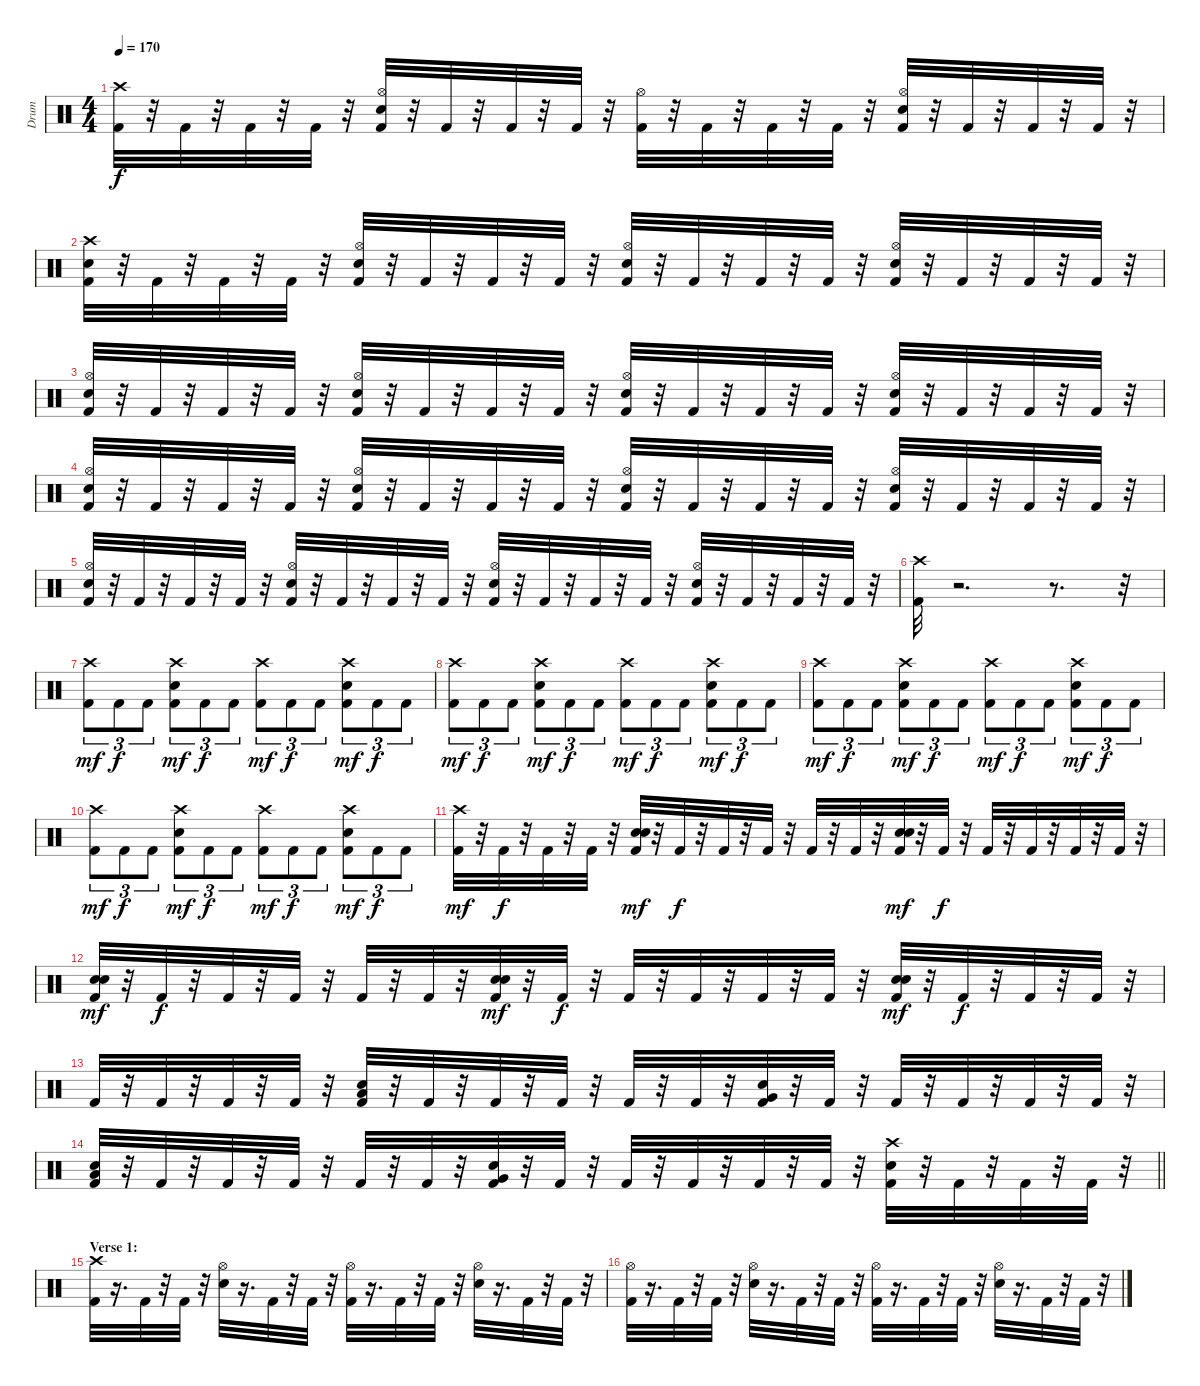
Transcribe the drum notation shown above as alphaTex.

\track ("Drum" "Drum") {instrument percussion}
\staff {score}
\articulation defaults
\ts (4 4)
\tempo 170
\clef neutral
\ks c
("Crash high (hit)" "Kick (hit) 2").32{dy f} r.32 "Kick (hit) 2".32 r.32 "Kick (hit) 2".32 r.32 "Kick (hit) 2".32 r.32 ("Hi-Hat (open)" "Snare (hit) 2" "Kick (hit) 2").32 r.32 "Kick (hit) 2".32 r.32 "Kick (hit) 2".32 r.32 "Kick (hit) 2".32 r.32 ("Hi-Hat (open)" "Kick (hit) 2").32 r.32 "Kick (hit) 2".32 r.32 "Kick (hit) 2".32 r.32 "Kick (hit) 2".32 r.32 ("Hi-Hat (open)" "Kick (hit) 2" "Snare (hit) 2").32 r.32 "Kick (hit) 2".32 r.32 "Kick (hit) 2".32 r.32 "Kick (hit) 2".32 r.32 |
("Snare (hit) 2" "Kick (hit) 2" "Crash high (hit)").32 r.32 "Kick (hit) 2".32 r.32 "Kick (hit) 2".32 r.32 "Kick (hit) 2".32 r.32 ("Snare (hit) 2" "Kick (hit) 2" "Hi-Hat (open)").32 r.32 "Kick (hit) 2".32 r.32 "Kick (hit) 2".32 r.32 "Kick (hit) 2".32 r.32 ("Snare (hit) 2" "Kick (hit) 2" "Hi-Hat (open)").32 r.32 "Kick (hit) 2".32 r.32 "Kick (hit) 2".32 r.32 "Kick (hit) 2".32 r.32 ("Snare (hit) 2" "Kick (hit) 2" "Hi-Hat (open)").32 r.32 "Kick (hit) 2".32 r.32 "Kick (hit) 2".32 r.32 "Kick (hit) 2".32 r.32 |
("Snare (hit) 2" "Kick (hit) 2" "Hi-Hat (open)").32 r.32 "Kick (hit) 2".32 r.32 "Kick (hit) 2".32 r.32 "Kick (hit) 2".32 r.32 ("Snare (hit) 2" "Kick (hit) 2" "Hi-Hat (open)").32 r.32 "Kick (hit) 2".32 r.32 "Kick (hit) 2".32 r.32 "Kick (hit) 2".32 r.32 ("Snare (hit) 2" "Kick (hit) 2" "Hi-Hat (open)").32 r.32 "Kick (hit) 2".32 r.32 "Kick (hit) 2".32 r.32 "Kick (hit) 2".32 r.32 ("Snare (hit) 2" "Kick (hit) 2" "Hi-Hat (open)").32 r.32 "Kick (hit) 2".32 r.32 "Kick (hit) 2".32 r.32 "Kick (hit) 2".32 r.32 |
("Snare (hit) 2" "Kick (hit) 2" "Hi-Hat (open)").32 r.32 "Kick (hit) 2".32 r.32 "Kick (hit) 2".32 r.32 "Kick (hit) 2".32 r.32 ("Snare (hit) 2" "Kick (hit) 2" "Hi-Hat (open)").32 r.32 "Kick (hit) 2".32 r.32 "Kick (hit) 2".32 r.32 "Kick (hit) 2".32 r.32 ("Snare (hit) 2" "Kick (hit) 2" "Hi-Hat (open)").32 r.32 "Kick (hit) 2".32 r.32 "Kick (hit) 2".32 r.32 "Kick (hit) 2".32 r.32 ("Snare (hit) 2" "Kick (hit) 2" "Hi-Hat (open)").32 r.32 "Kick (hit) 2".32 r.32 "Kick (hit) 2".32 r.32 "Kick (hit) 2".32 r.32 |
("Snare (hit) 2" "Kick (hit) 2" "Hi-Hat (open)").32 r.32 "Kick (hit) 2".32 r.32 "Kick (hit) 2".32 r.32 "Kick (hit) 2".32 r.32 ("Snare (hit) 2" "Kick (hit) 2" "Hi-Hat (open)").32 r.32 "Kick (hit) 2".32 r.32 "Kick (hit) 2".32 r.32 "Kick (hit) 2".32 r.32 ("Snare (hit) 2" "Kick (hit) 2" "Hi-Hat (open)").32 r.32 "Kick (hit) 2".32 r.32 "Kick (hit) 2".32 r.32 "Kick (hit) 2".32 r.32 ("Snare (hit) 2" "Kick (hit) 2" "Hi-Hat (open)").32 r.32 "Kick (hit) 2".32 r.32 "Kick (hit) 2".32 r.32 "Kick (hit) 2".32 r.32 |
("Crash high (hit)" "Kick (hit) 2").32 r.2{d} r.8{d} r.32 |
("Kick (hit) 2" "Crash high (hit)").8{tu (3 2) dy mf} "Kick (hit) 2".8{tu (3 2) dy f} "Kick (hit) 2".8{tu (3 2)} ("Kick (hit) 2" "Crash high (hit)" "Snare (hit) 2").8{tu (3 2) dy mf} "Kick (hit) 2".8{tu (3 2) dy f} "Kick (hit) 2".8{tu (3 2)} ("Kick (hit) 2" "Crash high (hit)").8{tu (3 2) dy mf} "Kick (hit) 2".8{tu (3 2) dy f} "Kick (hit) 2".8{tu (3 2)} ("Kick (hit) 2" "Crash high (hit)" "Snare (hit) 2").8{tu (3 2) dy mf} "Kick (hit) 2".8{tu (3 2) dy f} "Kick (hit) 2".8{tu (3 2)} |
("Kick (hit) 2" "Crash high (hit)").8{tu (3 2) dy mf} "Kick (hit) 2".8{tu (3 2) dy f} "Kick (hit) 2".8{tu (3 2)} ("Kick (hit) 2" "Crash high (hit)" "Snare (hit) 2").8{tu (3 2) dy mf} "Kick (hit) 2".8{tu (3 2) dy f} "Kick (hit) 2".8{tu (3 2)} ("Kick (hit) 2" "Crash high (hit)").8{tu (3 2) dy mf} "Kick (hit) 2".8{tu (3 2) dy f} "Kick (hit) 2".8{tu (3 2)} ("Kick (hit) 2" "Crash high (hit)" "Snare (hit) 2").8{tu (3 2) dy mf} "Kick (hit) 2".8{tu (3 2) dy f} "Kick (hit) 2".8{tu (3 2)} |
("Kick (hit) 2" "Crash high (hit)").8{tu (3 2) dy mf} "Kick (hit) 2".8{tu (3 2) dy f} "Kick (hit) 2".8{tu (3 2)} ("Kick (hit) 2" "Crash high (hit)" "Snare (hit) 2").8{tu (3 2) dy mf} "Kick (hit) 2".8{tu (3 2) dy f} "Kick (hit) 2".8{tu (3 2)} ("Kick (hit) 2" "Crash high (hit)").8{tu (3 2) dy mf} "Kick (hit) 2".8{tu (3 2) dy f} "Kick (hit) 2".8{tu (3 2)} ("Kick (hit) 2" "Crash high (hit)" "Snare (hit) 2").8{tu (3 2) dy mf} "Kick (hit) 2".8{tu (3 2) dy f} "Kick (hit) 2".8{tu (3 2)} |
("Kick (hit) 2" "Crash high (hit)").8{tu (3 2) dy mf} "Kick (hit) 2".8{tu (3 2) dy f} "Kick (hit) 2".8{tu (3 2)} ("Kick (hit) 2" "Crash high (hit)" "Snare (hit) 2").8{tu (3 2) dy mf} "Kick (hit) 2".8{tu (3 2) dy f} "Kick (hit) 2".8{tu (3 2)} ("Kick (hit) 2" "Crash high (hit)").8{tu (3 2) dy mf} "Kick (hit) 2".8{tu (3 2) dy f} "Kick (hit) 2".8{tu (3 2)} ("Kick (hit) 2" "Crash high (hit)" "Snare (hit) 2").8{tu (3 2) dy mf} "Kick (hit) 2".8{tu (3 2) dy f} "Kick (hit) 2".8{tu (3 2)} |
("Kick (hit) 2" "Crash high (hit)").32{dy mf} r.32 "Kick (hit) 2".32{dy f} r.32 "Kick (hit) 2".32 r.32 "Kick (hit) 2".32 r.32 ("Kick (hit) 2" "Snare (hit) 2" "Snare (hit) 2").32{dy mf} r.32 "Kick (hit) 2".32{dy f} r.32 "Kick (hit) 2".32 r.32 "Kick (hit) 2".32 r.32 "Kick (hit) 2".32 r.32 "Kick (hit) 2".32 r.32 ("Snare (hit) 2" "Kick (hit) 2" "Snare (hit) 2").32{dy mf} r.32 "Kick (hit) 2".32{dy f} r.32 "Kick (hit) 2".32 r.32 "Kick (hit) 2".32 r.32 "Kick (hit) 2".32 r.32 "Kick (hit) 2".32 r.32 |
("Snare (hit) 2" "Kick (hit) 2" "Snare (hit) 2").32{dy mf} r.32 "Kick (hit) 2".32{dy f} r.32 "Kick (hit) 2".32 r.32 "Kick (hit) 2".32 r.32 "Kick (hit) 2".32 r.32 "Kick (hit) 2".32 r.32 ("Snare (hit) 2" "Kick (hit) 2" "Snare (hit) 2").32{dy mf} r.32 "Kick (hit) 2".32{dy f} r.32 "Kick (hit) 2".32 r.32 "Kick (hit) 2".32 r.32 "Kick (hit) 2".32 r.32 "Kick (hit) 2".32 r.32 ("Snare (hit) 2" "Kick (hit) 2" "Snare (hit) 2").32{dy mf} r.32 "Kick (hit) 2".32{dy f} r.32 "Kick (hit) 2".32 r.32 "Kick (hit) 2".32 r.32 |
"Kick (hit) 2".32 r.32 "Kick (hit) 2".32 r.32 "Kick (hit) 2".32 r.32 "Kick (hit) 2".32 r.32 ("Low Tom (hit)" "Snare (hit) 2" "Kick (hit) 2").32 r.32 "Kick (hit) 2".32 r.32 "Kick (hit) 2".32 r.32 "Kick (hit) 2".32 r.32 "Kick (hit) 2".32 r.32 "Kick (hit) 2".32 r.32 ("Very Low Tom (hit)" "Snare (hit) 2" "Kick (hit) 2").32 r.32 "Kick (hit) 2".32 r.32 "Kick (hit) 2".32 r.32 "Kick (hit) 2".32 r.32 "Kick (hit) 2".32 r.32 "Kick (hit) 2".32 r.32 |
\barLineRight lightlight
("Low Floor Tom (hit)" "Snare (hit) 2" "Kick (hit) 2").32 r.32 "Kick (hit) 2".32 r.32 "Kick (hit) 2".32 r.32 "Kick (hit) 2".32 r.32 "Kick (hit) 2".32 r.32 "Kick (hit) 2".32 r.32 ("Very Low Tom (hit)" "Snare (hit) 2" "Kick (hit) 2").32 r.32 "Kick (hit) 2".32 r.32 "Kick (hit) 2".32 r.32 "Kick (hit) 2".32 r.32 "Kick (hit) 2".32 r.32 "Kick (hit) 2".32 r.32 ("Crash high (hit)" "Snare (hit) 2" "Kick (hit) 2").32 r.32 "Kick (hit) 2".32 r.32 "Kick (hit) 2".32 r.32 "Kick (hit) 2".32 r.32 |
\section ("" "Verse 1:")
("Crash high (hit)" "Kick (hit) 2").32 r.16{d} "Kick (hit) 2".32 r.32 "Kick (hit) 2".32 r.32 ("Hi-Hat (open)" "Snare (hit) 2").32 r.16{d} "Kick (hit) 2".32 r.32 "Kick (hit) 2".32 r.32 ("Hi-Hat (open)" "Kick (hit) 2").32 r.16{d} "Kick (hit) 2".32 r.32 "Kick (hit) 2".32 r.32 ("Hi-Hat (open)" "Snare (hit) 2").32 r.16{d} "Kick (hit) 2".32 r.32 "Kick (hit) 2".32 r.32 |
("Hi-Hat (open)" "Kick (hit) 2").32 r.16{d} "Kick (hit) 2".32 r.32 "Kick (hit) 2".32 r.32 ("Hi-Hat (open)" "Snare (hit) 2").32 r.16{d} "Kick (hit) 2".32 r.32 "Kick (hit) 2".32 r.32 ("Hi-Hat (open)" "Kick (hit) 2").32 r.16{d} "Kick (hit) 2".32 r.32 "Kick (hit) 2".32 r.32 ("Hi-Hat (open)" "Snare (hit) 2").32 r.16{d} "Kick (hit) 2".32 r.32 "Kick (hit) 2".32 r.32
